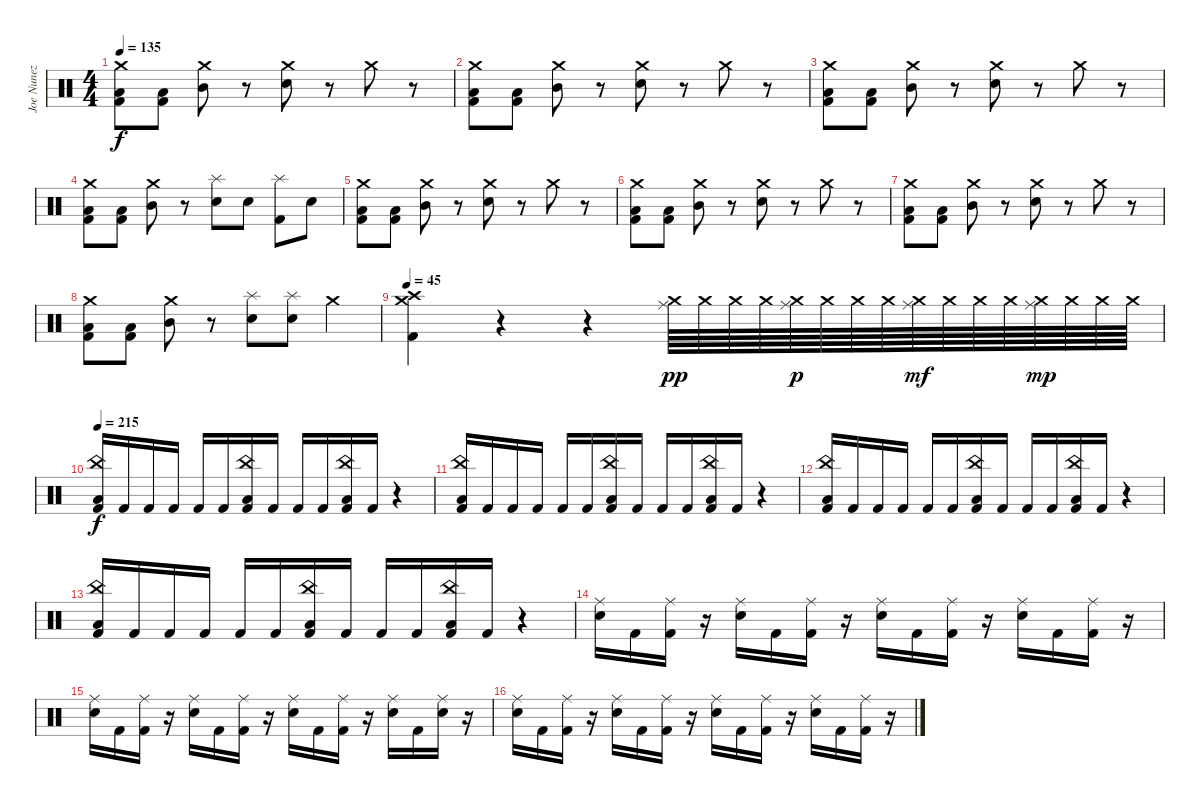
\track ("Joe Nunez" "Joe Nunez") {instrument percussion}
\staff {score}
\articulation defaults
\ts (4 4)
\tempo 135
\clef neutral
\ks c
("Crash medium (hit)" "Low Floor Tom (hit)" "Kick (hit) 2").8{dy f} ("Low Floor Tom (hit)" "Kick (hit) 2").8 ("Crash medium (hit)" "Mid Tom (hit)").8 r.8 ("Crash medium (hit)" "Electric Snare (hit)").8 r.8 "Crash medium (hit)".8 r.8 |
("Crash medium (hit)" "Low Floor Tom (hit)" "Kick (hit) 2").8 ("Low Floor Tom (hit)" "Kick (hit) 2").8 ("Crash medium (hit)" "Mid Tom (hit)").8 r.8 ("Crash medium (hit)" "Electric Snare (hit)").8 r.8 "Crash medium (hit)".8 r.8 |
("Crash medium (hit)" "Low Floor Tom (hit)" "Kick (hit) 2").8 ("Low Floor Tom (hit)" "Kick (hit) 2").8 ("Crash medium (hit)" "Mid Tom (hit)").8 r.8 ("Crash medium (hit)" "Electric Snare (hit)").8 r.8 "Crash medium (hit)".8 r.8 |
("Crash medium (hit)" "Low Floor Tom (hit)" "Kick (hit) 2").8 ("Low Floor Tom (hit)" "Kick (hit) 2").8 ("Crash medium (hit)" "Mid Tom (hit)").8 r.8 ("Splash (hit)" "Electric Snare (hit)").8 "Electric Snare (hit)".8 ("Splash (hit)" "Kick (hit) 2").8 "Electric Snare (hit)".8 |
("Crash medium (hit)" "Low Floor Tom (hit)" "Kick (hit) 2").8 ("Low Floor Tom (hit)" "Kick (hit) 2").8 ("Crash medium (hit)" "Mid Tom (hit)").8 r.8 ("Crash medium (hit)" "Electric Snare (hit)").8 r.8 "Crash medium (hit)".8 r.8 |
("Crash medium (hit)" "Low Floor Tom (hit)" "Kick (hit) 2").8 ("Low Floor Tom (hit)" "Kick (hit) 2").8 ("Crash medium (hit)" "Mid Tom (hit)").8 r.8 ("Crash medium (hit)" "Electric Snare (hit)").8 r.8 "Crash medium (hit)".8 r.8 |
("Crash medium (hit)" "Low Floor Tom (hit)" "Kick (hit) 2").8 ("Low Floor Tom (hit)" "Kick (hit) 2").8 ("Crash medium (hit)" "Mid Tom (hit)").8 r.8 ("Crash medium (hit)" "Electric Snare (hit)").8 r.8 "Crash medium (hit)".8 r.8 |
("Crash medium (hit)" "Low Floor Tom (hit)" "Kick (hit) 2").8 ("Low Floor Tom (hit)" "Kick (hit) 2").8 ("Crash medium (hit)" "Mid Tom (hit)").8 r.8 ("Splash (hit)" "Electric Snare (hit)").8 ("Splash (hit)" "Electric Snare (hit)").8 "Crash medium (hit)".4 |
\tempo 45
("Crash high (hit)" "Crash medium (hit)" "Kick (hit) 2").4 r.4 r.4 ("Crash medium (hit)" "Ride (middle)").64{dy pp} "Crash medium (hit)".64 "Crash medium (hit)".64 "Crash medium (hit)".64 ("Crash medium (hit)" "Ride (middle)").64{dy p} "Crash medium (hit)".64 "Crash medium (hit)".64 "Crash medium (hit)".64 ("Crash medium (hit)" "Ride (middle)").64{dy mf} "Crash medium (hit)".64 "Crash medium (hit)".64 "Crash medium (hit)".64 ("Crash medium (hit)" "Ride (middle)").64{dy mp} "Crash medium (hit)".64 "Crash medium (hit)".64 "Crash medium (hit)".64 |
\tempo 215
("China (hit)" "Low Tom (hit)" "Kick (hit) 2").16{dy f} "Kick (hit) 2".16 "Kick (hit) 2".16 "Kick (hit) 2".16 "Kick (hit) 2".16 "Kick (hit) 2".16 ("China (hit)" "Low Tom (hit)" "Kick (hit) 2").16 "Kick (hit) 2".16 "Kick (hit) 2".16 "Kick (hit) 2".16 ("China (hit)" "Low Tom (hit)" "Kick (hit) 2").16 "Kick (hit) 2".16 r.4 |
("China (hit)" "Low Tom (hit)" "Kick (hit) 2").16 "Kick (hit) 2".16 "Kick (hit) 2".16 "Kick (hit) 2".16 "Kick (hit) 2".16 "Kick (hit) 2".16 ("China (hit)" "Low Tom (hit)" "Kick (hit) 2").16 "Kick (hit) 2".16 "Kick (hit) 2".16 "Kick (hit) 2".16 ("China (hit)" "Low Tom (hit)" "Kick (hit) 2").16 "Kick (hit) 2".16 r.4 |
("China (hit)" "Low Tom (hit)" "Kick (hit) 2").16 "Kick (hit) 2".16 "Kick (hit) 2".16 "Kick (hit) 2".16 "Kick (hit) 2".16 "Kick (hit) 2".16 ("China (hit)" "Low Tom (hit)" "Kick (hit) 2").16 "Kick (hit) 2".16 "Kick (hit) 2".16 "Kick (hit) 2".16 ("China (hit)" "Low Tom (hit)" "Kick (hit) 2").16 "Kick (hit) 2".16 r.4 |
("China (hit)" "Low Tom (hit)" "Kick (hit) 2").16 "Kick (hit) 2".16 "Kick (hit) 2".16 "Kick (hit) 2".16 "Kick (hit) 2".16 "Kick (hit) 2".16 ("China (hit)" "Low Tom (hit)" "Kick (hit) 2").16 "Kick (hit) 2".16 "Kick (hit) 2".16 "Kick (hit) 2".16 ("China (hit)" "Low Tom (hit)" "Kick (hit) 2").16 "Kick (hit) 2".16 r.4 |
("Ride (middle)" "Electric Snare (hit)").16 "Kick (hit) 2".16 ("Ride (middle)" "Kick (hit) 2").16 r.16 ("Ride (middle)" "Electric Snare (hit)").16 "Kick (hit) 2".16 ("Ride (middle)" "Kick (hit) 2").16 r.16 ("Ride (middle)" "Electric Snare (hit)").16 "Kick (hit) 2".16 ("Ride (middle)" "Kick (hit) 2").16 r.16 ("Ride (middle)" "Electric Snare (hit)").16 "Kick (hit) 2".16 ("Ride (middle)" "Kick (hit) 2").16 r.16 |
("Ride (middle)" "Electric Snare (hit)").16 "Kick (hit) 2".16 ("Ride (middle)" "Kick (hit) 2").16 r.16 ("Ride (middle)" "Electric Snare (hit)").16 "Kick (hit) 2".16 ("Ride (middle)" "Kick (hit) 2").16 r.16 ("Ride (middle)" "Electric Snare (hit)").16 "Kick (hit) 2".16 ("Ride (middle)" "Kick (hit) 2").16 r.16 ("Ride (middle)" "Electric Snare (hit)").16 "Kick (hit) 2".16 ("Ride (middle)" "Electric Snare (hit)").16 r.16 |
("Ride (middle)" "Electric Snare (hit)").16 "Kick (hit) 2".16 ("Ride (middle)" "Kick (hit) 2").16 r.16 ("Ride (middle)" "Electric Snare (hit)").16 "Kick (hit) 2".16 ("Ride (middle)" "Kick (hit) 2").16 r.16 ("Ride (middle)" "Electric Snare (hit)").16 "Kick (hit) 2".16 ("Ride (middle)" "Kick (hit) 2").16 r.16 ("Ride (middle)" "Electric Snare (hit)").16 "Kick (hit) 2".16 ("Ride (middle)" "Kick (hit) 2").16 r.16
